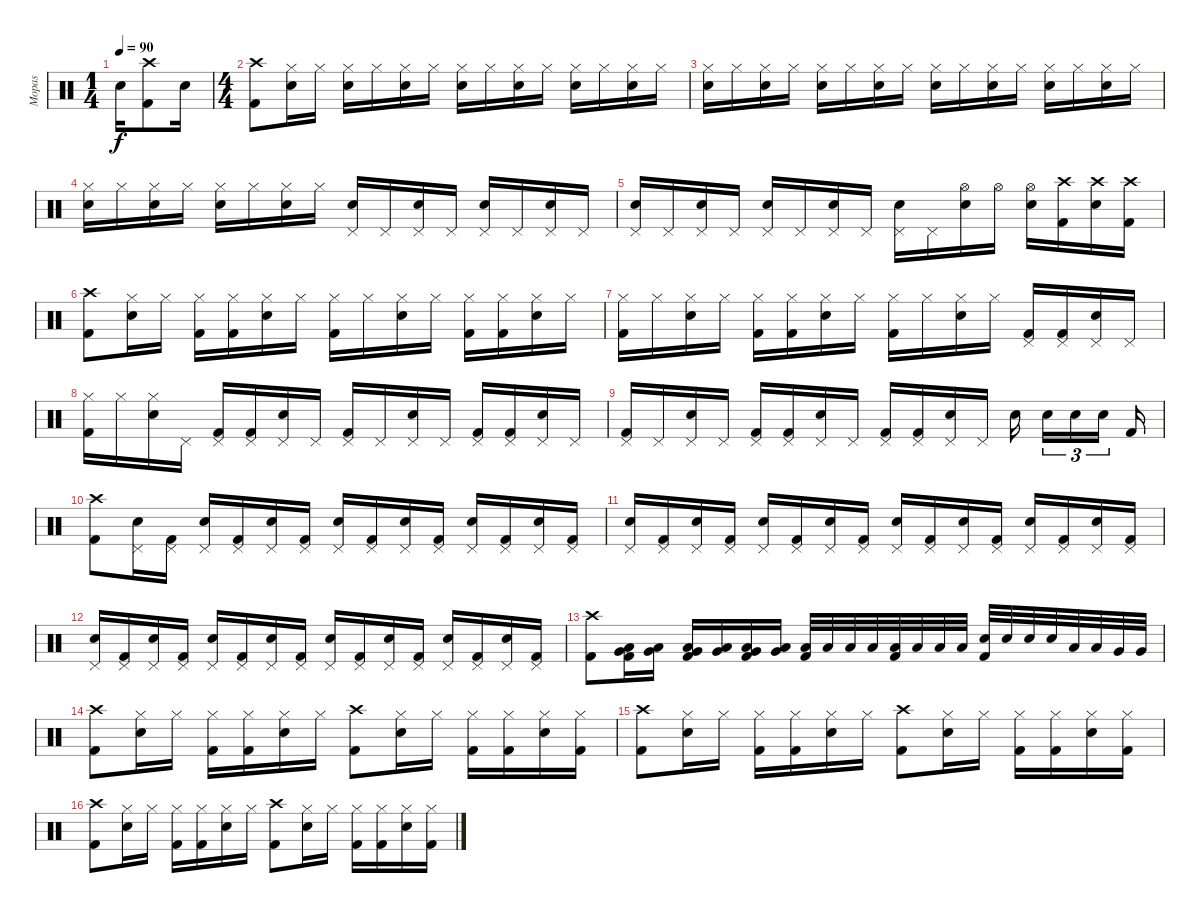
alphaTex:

\track ("Mopas" "Mopas") {instrument percussion}
\staff {score}
\articulation defaults
\ts (1 4)
\tempo 90
\clef neutral
\ks c "Snare (hit) 2".16{dy f}
("Crash high (hit)" "Kick (hit) 2").8 "Snare (hit) 2".16 |
\ts (4 4)
("Crash high (hit)" "Kick (hit) 2").8 ("Hi-Hat (closed)" "Snare (hit) 2").16 "Hi-Hat (closed)".16 ("Hi-Hat (closed)" "Snare (hit) 2").16 "Hi-Hat (closed)".16 ("Hi-Hat (closed)" "Snare (hit) 2").16 "Hi-Hat (closed)".16 ("Hi-Hat (closed)" "Snare (hit) 2").16 "Hi-Hat (closed)".16 ("Hi-Hat (closed)" "Snare (hit) 2").16 "Hi-Hat (closed)".16 ("Hi-Hat (closed)" "Snare (hit) 2").16 "Hi-Hat (closed)".16 ("Hi-Hat (closed)" "Snare (hit) 2").16 "Hi-Hat (closed)".16 |
("Hi-Hat (closed)" "Snare (hit) 2").16 "Hi-Hat (closed)".16 ("Hi-Hat (closed)" "Snare (hit) 2").16 "Hi-Hat (closed)".16 ("Hi-Hat (closed)" "Snare (hit) 2").16 "Hi-Hat (closed)".16 ("Hi-Hat (closed)" "Snare (hit) 2").16 "Hi-Hat (closed)".16 ("Hi-Hat (closed)" "Snare (hit) 2").16 "Hi-Hat (closed)".16 ("Hi-Hat (closed)" "Snare (hit) 2").16 "Hi-Hat (closed)".16 ("Hi-Hat (closed)" "Snare (hit) 2").16 "Hi-Hat (closed)".16 ("Hi-Hat (closed)" "Snare (hit) 2").16 "Hi-Hat (closed)".16 |
("Hi-Hat (closed)" "Snare (hit) 2").16 "Hi-Hat (closed)".16 ("Hi-Hat (closed)" "Snare (hit) 2").16 "Hi-Hat (closed)".16 ("Hi-Hat (closed)" "Snare (hit) 2").16 "Hi-Hat (closed)".16 ("Hi-Hat (closed)" "Snare (hit) 2").16 "Hi-Hat (closed)".16 ("Pedal Hi-Hat (hit)" "Snare (hit) 2").16 "Pedal Hi-Hat (hit)".16 ("Pedal Hi-Hat (hit)" "Snare (hit) 2").16 "Pedal Hi-Hat (hit)".16 ("Pedal Hi-Hat (hit)" "Snare (hit) 2").16 "Pedal Hi-Hat (hit)".16 ("Pedal Hi-Hat (hit)" "Snare (hit) 2").16 "Pedal Hi-Hat (hit)".16 |
("Pedal Hi-Hat (hit)" "Snare (hit) 2").16 "Pedal Hi-Hat (hit)".16 ("Pedal Hi-Hat (hit)" "Snare (hit) 2").16 "Pedal Hi-Hat (hit)".16 ("Pedal Hi-Hat (hit)" "Snare (hit) 2").16 "Pedal Hi-Hat (hit)".16 ("Pedal Hi-Hat (hit)" "Snare (hit) 2").16 "Pedal Hi-Hat (hit)".16 ("Pedal Hi-Hat (hit)" "Snare (hit) 2").16 "Pedal Hi-Hat (hit)".16 ("Hi-Hat (open)" "Snare (hit) 2").16 "Hi-Hat (open)".16 ("Hi-Hat (open)" "Snare (hit) 2").16 ("Crash high (hit)" "Kick (hit) 2").16 ("Crash high (hit)" "Snare (hit) 2").16 ("Crash high (hit)" "Kick (hit) 2").16 |
("Crash high (hit)" "Kick (hit) 2").8 ("Hi-Hat (closed)" "Snare (hit) 2").16 "Hi-Hat (closed)".16 ("Hi-Hat (closed)" "Kick (hit) 2").16 ("Hi-Hat (closed)" "Kick (hit) 2").16 ("Hi-Hat (closed)" "Snare (hit) 2").16 "Hi-Hat (closed)".16 ("Hi-Hat (closed)" "Kick (hit) 2").16 "Hi-Hat (closed)".16 ("Hi-Hat (closed)" "Snare (hit) 2").16 "Hi-Hat (closed)".16 ("Hi-Hat (closed)" "Kick (hit) 2").16 ("Hi-Hat (closed)" "Kick (hit) 2").16 ("Hi-Hat (closed)" "Snare (hit) 2").16 "Hi-Hat (closed)".16 |
("Hi-Hat (closed)" "Kick (hit) 2").16 "Hi-Hat (closed)".16 ("Hi-Hat (closed)" "Snare (hit) 2").16 "Hi-Hat (closed)".16 ("Hi-Hat (closed)" "Kick (hit) 2").16 ("Hi-Hat (closed)" "Kick (hit) 2").16 ("Hi-Hat (closed)" "Snare (hit) 2").16 "Hi-Hat (closed)".16 ("Hi-Hat (closed)" "Kick (hit) 2").16 "Hi-Hat (closed)".16 ("Hi-Hat (closed)" "Snare (hit) 2").16 "Hi-Hat (closed)".16 ("Pedal Hi-Hat (hit)" "Kick (hit) 2").16 ("Pedal Hi-Hat (hit)" "Kick (hit) 2").16 ("Pedal Hi-Hat (hit)" "Snare (hit) 2").16 "Pedal Hi-Hat (hit)".16 |
("Hi-Hat (closed)" "Kick (hit) 2").16 "Hi-Hat (closed)".16 ("Hi-Hat (closed)" "Snare (hit) 2").16 "Pedal Hi-Hat (hit)".16 ("Pedal Hi-Hat (hit)" "Kick (hit) 2").16 ("Pedal Hi-Hat (hit)" "Kick (hit) 2").16 ("Pedal Hi-Hat (hit)" "Snare (hit) 2").16 "Pedal Hi-Hat (hit)".16 ("Pedal Hi-Hat (hit)" "Kick (hit) 2").16 "Pedal Hi-Hat (hit)".16 ("Pedal Hi-Hat (hit)" "Snare (hit) 2").16 "Pedal Hi-Hat (hit)".16 ("Pedal Hi-Hat (hit)" "Kick (hit) 2").16 ("Pedal Hi-Hat (hit)" "Kick (hit) 2").16 ("Pedal Hi-Hat (hit)" "Snare (hit) 2").16 "Pedal Hi-Hat (hit)".16 |
("Pedal Hi-Hat (hit)" "Kick (hit) 2").16 "Pedal Hi-Hat (hit)".16 ("Pedal Hi-Hat (hit)" "Snare (hit) 2").16 "Pedal Hi-Hat (hit)".16 ("Pedal Hi-Hat (hit)" "Kick (hit) 2").16 ("Pedal Hi-Hat (hit)" "Kick (hit) 2").16 ("Pedal Hi-Hat (hit)" "Snare (hit) 2").16 "Pedal Hi-Hat (hit)".16 ("Pedal Hi-Hat (hit)" "Kick (hit) 2").16 ("Pedal Hi-Hat (hit)" "Kick (hit) 2").16 ("Pedal Hi-Hat (hit)" "Snare (hit) 2").16 "Pedal Hi-Hat (hit)".16 "Snare (hit) 2".16 "Snare (hit) 2".16{tu (3 2)} "Snare (hit) 2".16{tu (3 2)} "Snare (hit) 2".16{tu (3 2)} "Kick (hit) 2".16 |
("Crash high (hit)" "Kick (hit) 2").8 ("Pedal Hi-Hat (hit)" "Snare (hit) 2").16 ("Pedal Hi-Hat (hit)" "Kick (hit) 2").16 ("Pedal Hi-Hat (hit)" "Snare (hit) 2").16 ("Pedal Hi-Hat (hit)" "Kick (hit) 2").16 ("Pedal Hi-Hat (hit)" "Snare (hit) 2").16 ("Pedal Hi-Hat (hit)" "Kick (hit) 2").16 ("Pedal Hi-Hat (hit)" "Snare (hit) 2").16 ("Pedal Hi-Hat (hit)" "Kick (hit) 2").16 ("Pedal Hi-Hat (hit)" "Snare (hit) 2").16 ("Pedal Hi-Hat (hit)" "Kick (hit) 2").16 ("Pedal Hi-Hat (hit)" "Snare (hit) 2").16 ("Pedal Hi-Hat (hit)" "Kick (hit) 2").16 ("Pedal Hi-Hat (hit)" "Snare (hit) 2").16 ("Pedal Hi-Hat (hit)" "Kick (hit) 2").16 |
("Pedal Hi-Hat (hit)" "Snare (hit) 2").16 ("Pedal Hi-Hat (hit)" "Kick (hit) 2").16 ("Pedal Hi-Hat (hit)" "Snare (hit) 2").16 ("Pedal Hi-Hat (hit)" "Kick (hit) 2").16 ("Pedal Hi-Hat (hit)" "Snare (hit) 2").16 ("Pedal Hi-Hat (hit)" "Kick (hit) 2").16 ("Pedal Hi-Hat (hit)" "Snare (hit) 2").16 ("Pedal Hi-Hat (hit)" "Kick (hit) 2").16 ("Pedal Hi-Hat (hit)" "Snare (hit) 2").16 ("Pedal Hi-Hat (hit)" "Kick (hit) 2").16 ("Pedal Hi-Hat (hit)" "Snare (hit) 2").16 ("Pedal Hi-Hat (hit)" "Kick (hit) 2").16 ("Pedal Hi-Hat (hit)" "Snare (hit) 2").16 ("Pedal Hi-Hat (hit)" "Kick (hit) 2").16 ("Pedal Hi-Hat (hit)" "Snare (hit) 2").16 ("Pedal Hi-Hat (hit)" "Kick (hit) 2").16 |
("Pedal Hi-Hat (hit)" "Snare (hit) 2").16 ("Pedal Hi-Hat (hit)" "Kick (hit) 2").16 ("Pedal Hi-Hat (hit)" "Snare (hit) 2").16 ("Pedal Hi-Hat (hit)" "Kick (hit) 2").16 ("Pedal Hi-Hat (hit)" "Snare (hit) 2").16 ("Pedal Hi-Hat (hit)" "Kick (hit) 2").16 ("Pedal Hi-Hat (hit)" "Snare (hit) 2").16 ("Pedal Hi-Hat (hit)" "Kick (hit) 2").16 ("Pedal Hi-Hat (hit)" "Snare (hit) 2").16 ("Pedal Hi-Hat (hit)" "Kick (hit) 2").16 ("Pedal Hi-Hat (hit)" "Snare (hit) 2").16 ("Pedal Hi-Hat (hit)" "Kick (hit) 2").16 ("Pedal Hi-Hat (hit)" "Snare (hit) 2").16 ("Pedal Hi-Hat (hit)" "Kick (hit) 2").16 ("Pedal Hi-Hat (hit)" "Snare (hit) 2").16 ("Pedal Hi-Hat (hit)" "Kick (hit) 2").16 |
("Crash high (hit)" "Kick (hit) 2").8 ("Low Tom (hit)" "Very Low Tom (hit)" "Kick (hit) 2").16 ("Low Tom (hit)" "Very Low Tom (hit)").16 ("Low Tom (hit)" "Very Low Tom (hit)" "Kick (hit) 2").16 ("Low Tom (hit)" "Very Low Tom (hit)").16 ("Low Tom (hit)" "Very Low Tom (hit)" "Kick (hit) 2").16 ("Low Tom (hit)" "Very Low Tom (hit)").16 ("Low Tom (hit)" "Kick (hit) 2").32 "Low Tom (hit)".32 "Low Tom (hit)".32 "Low Tom (hit)".32 ("Low Tom (hit)" "Kick (hit) 2").32 "Low Tom (hit)".32 "Low Tom (hit)".32 "Low Tom (hit)".32 ("Snare (hit) 2" "Kick (hit) 2").32 "Snare (hit) 2".32 "Snare (hit) 2".32 "Snare (hit) 2".32 "Low Tom (hit)".32 "Low Tom (hit)".32 "Very Low Tom (hit)".32 "Very Low Tom (hit)".32 |
("Crash high (hit)" "Kick (hit) 2").8 ("Hi-Hat (closed)" "Snare (hit) 2").16 "Hi-Hat (closed)".16 ("Hi-Hat (closed)" "Kick (hit) 2").16 ("Hi-Hat (closed)" "Kick (hit) 2").16 ("Hi-Hat (closed)" "Snare (hit) 2").16 "Hi-Hat (closed)".16 ("Crash high (hit)" "Kick (hit) 2").8 ("Hi-Hat (closed)" "Snare (hit) 2").16 "Hi-Hat (closed)".16 ("Hi-Hat (closed)" "Kick (hit) 2").16 ("Hi-Hat (closed)" "Kick (hit) 2").16 ("Hi-Hat (closed)" "Snare (hit) 2").16 ("Hi-Hat (closed)" "Kick (hit) 2").16 |
("Crash high (hit)" "Kick (hit) 2").8 ("Hi-Hat (closed)" "Snare (hit) 2").16 "Hi-Hat (closed)".16 ("Hi-Hat (closed)" "Kick (hit) 2").16 ("Hi-Hat (closed)" "Kick (hit) 2").16 ("Hi-Hat (closed)" "Snare (hit) 2").16 "Hi-Hat (closed)".16 ("Crash high (hit)" "Kick (hit) 2").8 ("Hi-Hat (closed)" "Snare (hit) 2").16 "Hi-Hat (closed)".16 ("Hi-Hat (closed)" "Kick (hit) 2").16 ("Hi-Hat (closed)" "Kick (hit) 2").16 ("Hi-Hat (closed)" "Snare (hit) 2").16 ("Hi-Hat (closed)" "Kick (hit) 2").16 |
("Crash high (hit)" "Kick (hit) 2").8 ("Hi-Hat (closed)" "Snare (hit) 2").16 "Hi-Hat (closed)".16 ("Hi-Hat (closed)" "Kick (hit) 2").16 ("Hi-Hat (closed)" "Kick (hit) 2").16 ("Hi-Hat (closed)" "Snare (hit) 2").16 "Hi-Hat (closed)".16 ("Crash high (hit)" "Kick (hit) 2").8 ("Hi-Hat (closed)" "Snare (hit) 2").16 "Hi-Hat (closed)".16 ("Hi-Hat (closed)" "Kick (hit) 2").16 ("Hi-Hat (closed)" "Kick (hit) 2").16 ("Hi-Hat (closed)" "Snare (hit) 2").16 ("Hi-Hat (closed)" "Kick (hit) 2").16
